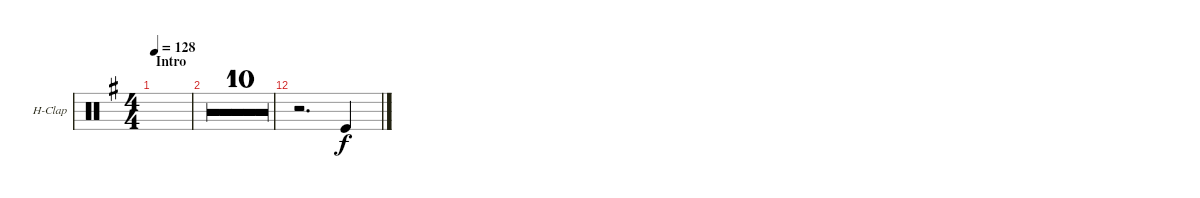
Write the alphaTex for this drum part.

\bracketExtendMode groupsimilarinstruments
\firstSystemTrackNameOrientation horizontal
\otherSystemsTrackNameOrientation horizontal
\track ("Hand Clap" "H-Clap") {multiBarRest instrument percussion}
\staff {score}
\articulation defaults
\ts (4 4)
\section ("" "Intro")
\tempo 128
\clef neutral
\ks eminor
|
|
|
|
|
|
|
|
|
|
|
r.2{d} "Kick (hit)".4
